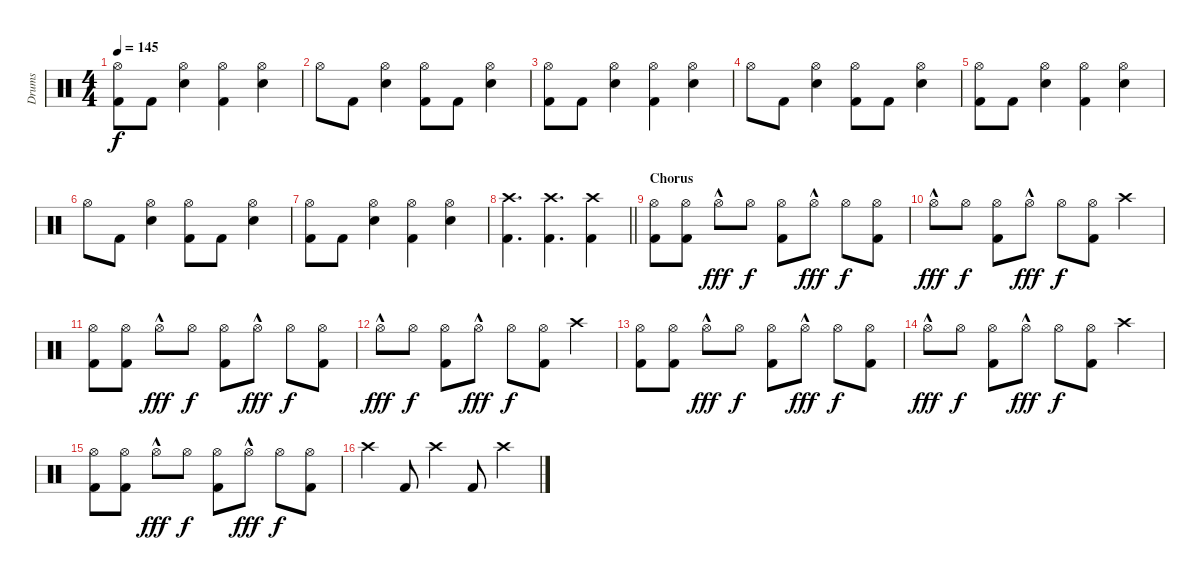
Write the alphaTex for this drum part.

\track ("Drums" "Drums") {instrument percussion}
\staff {score}
\articulation defaults
\ts (4 4)
\tempo 145
\clef neutral
\ks c
("Hi-Hat (open)" "Kick (hit) 2").8{dy f} "Kick (hit) 2".8 ("Hi-Hat (open)" "Electric Snare (hit)").4 ("Hi-Hat (open)" "Kick (hit) 2").4 ("Hi-Hat (open)" "Electric Snare (hit)").4 |
"Hi-Hat (open)".8 "Kick (hit) 2".8 ("Hi-Hat (open)" "Electric Snare (hit)").4 ("Hi-Hat (open)" "Kick (hit) 2").8 "Kick (hit) 2".8 ("Hi-Hat (open)" "Electric Snare (hit)").4 |
("Hi-Hat (open)" "Kick (hit) 2").8 "Kick (hit) 2".8 ("Hi-Hat (open)" "Electric Snare (hit)").4 ("Hi-Hat (open)" "Kick (hit) 2").4 ("Hi-Hat (open)" "Electric Snare (hit)").4 |
"Hi-Hat (open)".8 "Kick (hit) 2".8 ("Hi-Hat (open)" "Electric Snare (hit)").4 ("Hi-Hat (open)" "Kick (hit) 2").8 "Kick (hit) 2".8 ("Hi-Hat (open)" "Electric Snare (hit)").4 |
("Hi-Hat (open)" "Kick (hit) 2").8 "Kick (hit) 2".8 ("Hi-Hat (open)" "Electric Snare (hit)").4 ("Hi-Hat (open)" "Kick (hit) 2").4 ("Hi-Hat (open)" "Electric Snare (hit)").4 |
"Hi-Hat (open)".8 "Kick (hit) 2".8 ("Hi-Hat (open)" "Electric Snare (hit)").4 ("Hi-Hat (open)" "Kick (hit) 2").8 "Kick (hit) 2".8 ("Hi-Hat (open)" "Electric Snare (hit)").4 |
("Hi-Hat (open)" "Kick (hit) 2").8 "Kick (hit) 2".8 ("Hi-Hat (open)" "Electric Snare (hit)").4 ("Hi-Hat (open)" "Kick (hit) 2").4 ("Hi-Hat (open)" "Electric Snare (hit)").4 |
\barLineRight lightlight
("Crash high (hit)" "Kick (hit) 2").4{d} ("Crash high (hit)" "Kick (hit) 2").4{d} ("Crash high (hit)" "Kick (hit) 2").4 |
\section ("" "Chorus")
("Hi-Hat (open)" "Kick (hit) 2").8 ("Hi-Hat (open)" "Kick (hit) 2").8 "Hi-Hat (open)"{hac}.8{dy fff} "Hi-Hat (open)".8{dy f} ("Hi-Hat (open)" "Kick (hit) 2").8 "Hi-Hat (open)"{hac}.8{dy fff} "Hi-Hat (open)".8{dy f} ("Hi-Hat (open)" "Kick (hit) 2").8 |
"Hi-Hat (open)"{hac}.8{dy fff} "Hi-Hat (open)".8{dy f} ("Hi-Hat (open)" "Kick (hit) 2").8 "Hi-Hat (open)"{hac}.8{dy fff} "Hi-Hat (open)".8{dy f} ("Hi-Hat (open)" "Kick (hit) 2").8 "Crash high (hit)".4 |
("Hi-Hat (open)" "Kick (hit) 2").8 ("Hi-Hat (open)" "Kick (hit) 2").8 "Hi-Hat (open)"{hac}.8{dy fff} "Hi-Hat (open)".8{dy f} ("Hi-Hat (open)" "Kick (hit) 2").8 "Hi-Hat (open)"{hac}.8{dy fff} "Hi-Hat (open)".8{dy f} ("Hi-Hat (open)" "Kick (hit) 2").8 |
"Hi-Hat (open)"{hac}.8{dy fff} "Hi-Hat (open)".8{dy f} ("Hi-Hat (open)" "Kick (hit) 2").8 "Hi-Hat (open)"{hac}.8{dy fff} "Hi-Hat (open)".8{dy f} ("Hi-Hat (open)" "Kick (hit) 2").8 "Crash high (hit)".4 |
("Hi-Hat (open)" "Kick (hit) 2").8 ("Hi-Hat (open)" "Kick (hit) 2").8 "Hi-Hat (open)"{hac}.8{dy fff} "Hi-Hat (open)".8{dy f} ("Hi-Hat (open)" "Kick (hit) 2").8 "Hi-Hat (open)"{hac}.8{dy fff} "Hi-Hat (open)".8{dy f} ("Hi-Hat (open)" "Kick (hit) 2").8 |
"Hi-Hat (open)"{hac}.8{dy fff} "Hi-Hat (open)".8{dy f} ("Hi-Hat (open)" "Kick (hit) 2").8 "Hi-Hat (open)"{hac}.8{dy fff} "Hi-Hat (open)".8{dy f} ("Hi-Hat (open)" "Kick (hit) 2").8 "Crash high (hit)".4 |
("Hi-Hat (open)" "Kick (hit) 2").8 ("Hi-Hat (open)" "Kick (hit) 2").8 "Hi-Hat (open)"{hac}.8{dy fff} "Hi-Hat (open)".8{dy f} ("Hi-Hat (open)" "Kick (hit) 2").8 "Hi-Hat (open)"{hac}.8{dy fff} "Hi-Hat (open)".8{dy f} ("Hi-Hat (open)" "Kick (hit) 2").8 |
"Crash high (hit)".4 "Kick (hit) 2".8 "Crash high (hit)".4 "Kick (hit) 2".8 "Crash high (hit)".4
